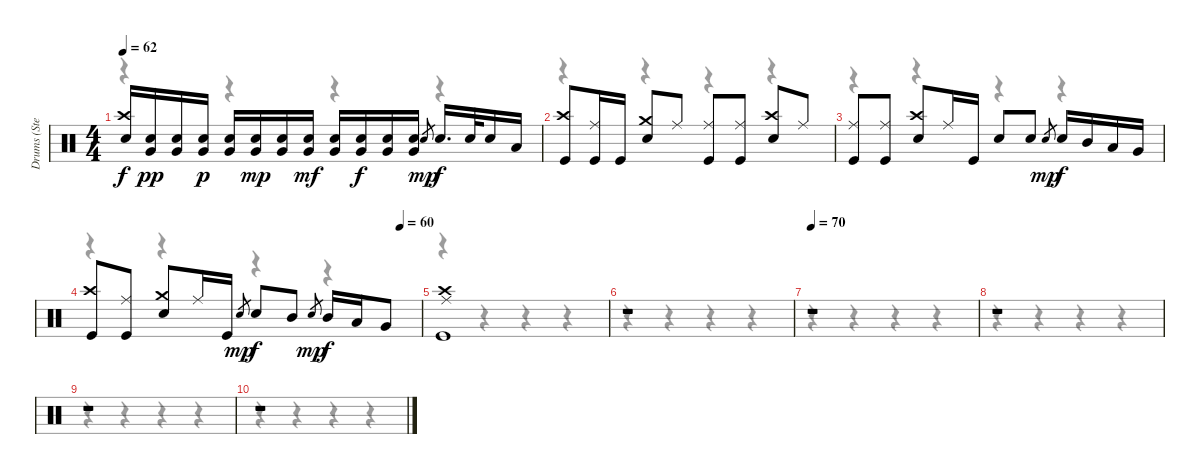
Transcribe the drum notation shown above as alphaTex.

\track ("Drums (Steven)" "Drums (Ste") {instrument percussion}
\staff {score}
\articulation defaults
\voice
\ts (4 4)
\tempo 62
\clef neutral
\ks c
("Crash high (hit)" "Snare (hit) 2").16{dy f} ("Snare (hit) 2" "Very Low Tom (hit)").16{dy pp} ("Snare (hit) 2" "Very Low Tom (hit)").16 ("Snare (hit) 2" "Very Low Tom (hit)").16{dy p} ("Snare (hit) 2" "Very Low Tom (hit)").16 ("Snare (hit) 2" "Very Low Tom (hit)").16{dy mp} ("Snare (hit) 2" "Very Low Tom (hit)").16 ("Snare (hit) 2" "Very Low Tom (hit)").16{dy mf} ("Snare (hit) 2" "Very Low Tom (hit)").16 ("Snare (hit) 2" "Very Low Tom (hit)").16{dy f} ("Snare (hit) 2" "Very Low Tom (hit)").16 ("Snare (hit) 2" "Very Low Tom (hit)").16 "Snare (hit)".8{gr dy mp} "Snare (hit) 2".16{d dy f} "Snare (hit) 2".32 "Snare (hit) 2".16 "Low Tom (hit)".16 |
("Crash high (hit)" "Kick (hit)").8 ("Ride (middle)" "Kick (hit)").16 "Kick (hit)".16 ("Crash medium (hit)" "Snare (hit) 2").8 "Ride (middle)".8 ("Ride (middle)" "Kick (hit)").8 ("Ride (middle)" "Kick (hit)").8 ("Crash high (hit)" "Snare (hit) 2").8 "Ride (middle)".8 |
("Ride (middle)" "Kick (hit)").8 ("Ride (middle)" "Kick (hit)").8 ("Crash high (hit)" "Snare (hit) 2").8 "Ride (middle)".16 "Kick (hit)".16 "Snare (hit) 2".8 "Snare (hit) 2".8 "Snare (hit)".8{gr dy mp} "Snare (hit) 2".16{dy f} "Mid Tom (hit)".16 "Low Tom (hit)".16 "Very Low Tom (hit)".16 |
\tempo (60 0.9375)
("Crash high (hit)" "Kick (hit)").8 ("Ride (middle)" "Kick (hit)").8 ("Crash medium (hit)" "Snare (hit) 2").8 "Ride (middle)".16 "Kick (hit)".16 "Snare (hit)".8{gr dy mp} "Snare (hit) 2".8{dy f} "Mid Tom (hit)".8 "Snare (hit)".8{gr dy mp} "Mid Tom (hit)".16{dy f} "Low Tom (hit)".16 "Very Low Tom (hit)".8 |
("Crash high (hit)" "Ride (middle)" "Kick (hit)").1 |
r.1 |
\tempo 70
r.1 |
r.1 |
r.1 |
r.1
\voice
\clef neutral
\ottava regular
\simile none
\ks c
r.4{dy f} r.4 r.4 r.4 |
r.4 r.4 r.4 r.4 |
r.4 r.4 r.4 r.4 |
r.4 r.4 r.4 r.4 |
r.4 r.4 r.4 r.4 |
r.4 r.4 r.4 r.4 |
r.4 r.4 r.4 r.4 |
r.4 r.4 r.4 r.4 |
r.4 r.4 r.4 r.4 |
r.4 r.4 r.4 r.4
